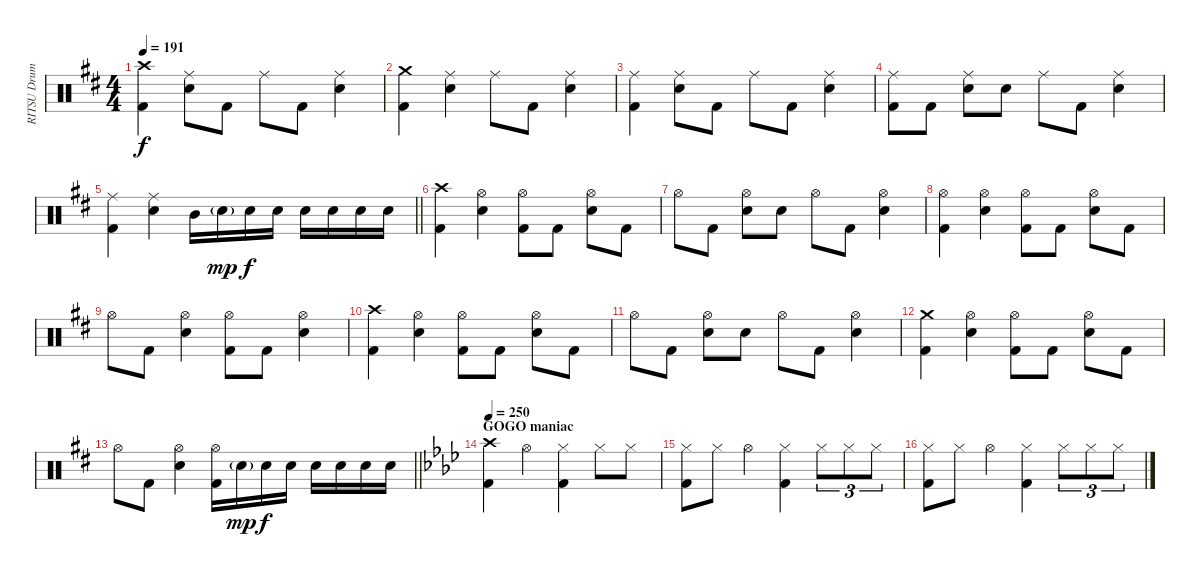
\track ("RITSU Drums" "RITSU Drum") {instrument percussion}
\staff {score}
\articulation defaults
\ts (4 4)
\tempo 191
\clef neutral
\ks d
("Crash high (hit)" "Kick (hit) 2").4{dy f} ("Ride (middle)" "Electric Snare (hit)").8 "Kick (hit) 2".8 "Ride (middle)".8 "Kick (hit) 2".8 ("Ride (middle)" "Electric Snare (hit)").4 |
("Crash medium (hit)" "Kick (hit) 2").4 ("Ride (middle)" "Electric Snare (hit)").4 "Ride (middle)".8 "Kick (hit) 2".8 ("Ride (middle)" "Electric Snare (hit)").4 |
("Ride (middle)" "Kick (hit) 2").4 ("Ride (middle)" "Electric Snare (hit)").8 "Kick (hit) 2".8 "Ride (middle)".8 "Kick (hit) 2".8 ("Ride (middle)" "Electric Snare (hit)").4 |
("Ride (middle)" "Kick (hit) 2").8 "Kick (hit) 2".8 ("Ride (middle)" "Electric Snare (hit)").8 "Electric Snare (hit)".8 "Ride (middle)".8 "Kick (hit) 2".8 ("Ride (middle)" "Electric Snare (hit)").4 |
\barLineRight lightlight
("Ride (middle)" "Kick (hit) 2").4 ("Ride (middle)" "Electric Snare (hit)").4 "Mid Tom (hit)".16 "Electric Snare (hit)"{g}.16{dy mp} "Electric Snare (hit)".16{dy f} "Electric Snare (hit)".16 "Electric Snare (hit)".16 "Electric Snare (hit)".16 "Electric Snare (hit)".16 "Electric Snare (hit)".16 |
("Crash high (hit)" "Kick (hit) 2").4 ("Hi-Hat (open)" "Electric Snare (hit)").4 ("Hi-Hat (open)" "Kick (hit) 2").8 "Kick (hit) 2".8 ("Hi-Hat (open)" "Electric Snare (hit)").8 "Kick (hit) 2".8 |
"Hi-Hat (open)".8 "Kick (hit) 2".8 ("Hi-Hat (open)" "Electric Snare (hit)").8 "Electric Snare (hit)".8 "Hi-Hat (open)".8 "Kick (hit) 2".8 ("Hi-Hat (open)" "Electric Snare (hit)").4 |
("Hi-Hat (open)" "Kick (hit) 2").4 ("Hi-Hat (open)" "Electric Snare (hit)").4 ("Hi-Hat (open)" "Kick (hit) 2").8 "Kick (hit) 2".8 ("Hi-Hat (open)" "Electric Snare (hit)").8 "Kick (hit) 2".8 |
"Hi-Hat (open)".8 "Kick (hit) 2".8 ("Hi-Hat (open)" "Electric Snare (hit)").4 ("Hi-Hat (open)" "Kick (hit) 2").8 "Kick (hit) 2".8 ("Hi-Hat (open)" "Electric Snare (hit)").4 |
("Crash high (hit)" "Kick (hit) 2").4 ("Hi-Hat (open)" "Electric Snare (hit)").4 ("Hi-Hat (open)" "Kick (hit) 2").8 "Kick (hit) 2".8 ("Hi-Hat (open)" "Electric Snare (hit)").8 "Kick (hit) 2".8 |
"Hi-Hat (open)".8 "Kick (hit) 2".8 ("Hi-Hat (open)" "Electric Snare (hit)").8 "Electric Snare (hit)".8 "Hi-Hat (open)".8 "Kick (hit) 2".8 ("Hi-Hat (open)" "Electric Snare (hit)").4 |
("Crash medium (hit)" "Kick (hit) 2").4 ("Hi-Hat (open)" "Electric Snare (hit)").4 ("Hi-Hat (open)" "Kick (hit) 2").8 "Kick (hit) 2".8 ("Hi-Hat (open)" "Electric Snare (hit)").8 "Kick (hit) 2".8 |
\barLineRight lightlight "Hi-Hat (open)".8 "Kick (hit) 2".8
("Hi-Hat (open)" "Electric Snare (hit)").4 ("Hi-Hat (open)" "Kick (hit) 2").16 "Electric Snare (hit)"{g}.16{dy mp} "Electric Snare (hit)".16{dy f} "Electric Snare (hit)".16 "Electric Snare (hit)".16 "Electric Snare (hit)".16 "Electric Snare (hit)".16 "Electric Snare (hit)".16 |
\section ("" "GOGO maniac")
\tempo 250
\ks ab
("Crash high (hit)" "Kick (hit) 2").4 "Hi-Hat (open)".4 ("Hi-Hat (closed)" "Kick (hit) 2").4 "Hi-Hat (closed)".8 "Hi-Hat (closed)".8 |
("Hi-Hat (closed)" "Kick (hit) 2").8 "Hi-Hat (closed)".8 "Hi-Hat (open)".4 ("Hi-Hat (closed)" "Kick (hit) 2").4 "Hi-Hat (closed)".8{tu (3 2)} "Hi-Hat (closed)".8{tu (3 2)} "Hi-Hat (closed)".8{tu (3 2)} |
("Hi-Hat (closed)" "Kick (hit) 2").8 "Hi-Hat (closed)".8 "Hi-Hat (open)".4 ("Hi-Hat (closed)" "Kick (hit) 2").4 "Hi-Hat (closed)".8{tu (3 2)} "Hi-Hat (closed)".8{tu (3 2)} "Hi-Hat (closed)".8{tu (3 2)}
